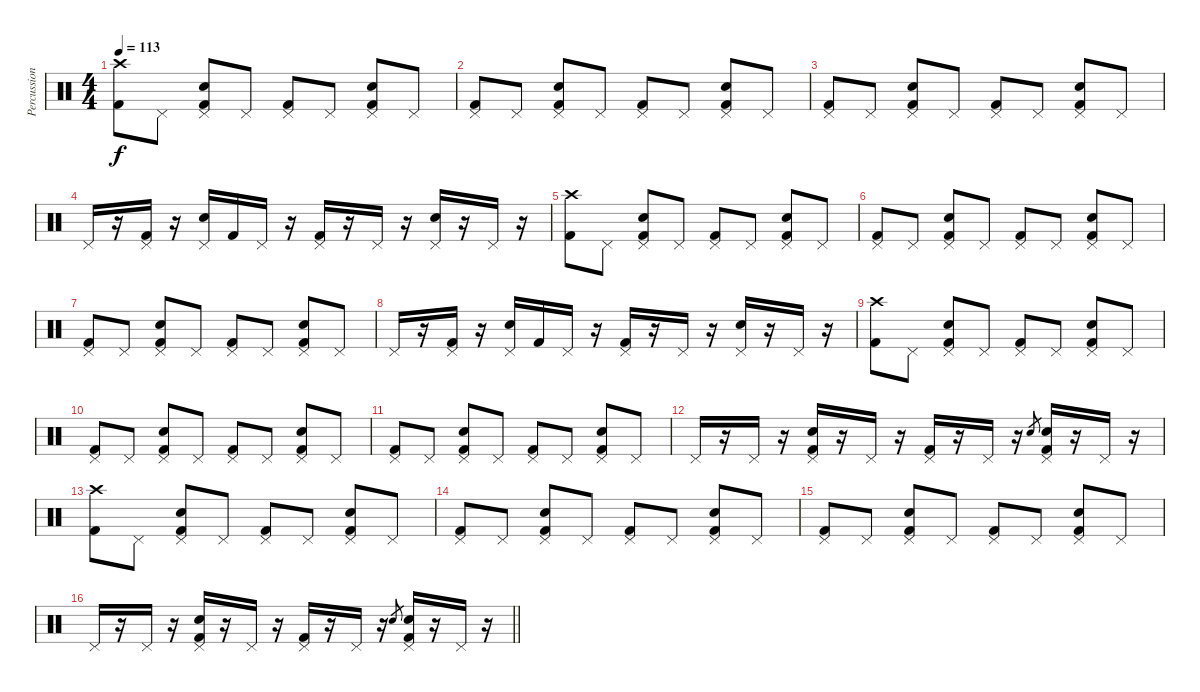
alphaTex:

\track ("Percussions" "Percussion") {instrument percussion}
\staff {score}
\articulation defaults
\ts (4 4)
\tempo 113
\clef neutral
\ks c
("Crash high (hit)" "Kick (hit) 2").8{dy f} "Pedal Hi-Hat (hit)".8 ("Pedal Hi-Hat (hit)" "Electric Snare (hit)" "Kick (hit) 2").8 "Pedal Hi-Hat (hit)".8 ("Pedal Hi-Hat (hit)" "Kick (hit) 2").8 "Pedal Hi-Hat (hit)".8 ("Pedal Hi-Hat (hit)" "Electric Snare (hit)" "Kick (hit) 2").8 "Pedal Hi-Hat (hit)".8 |
("Pedal Hi-Hat (hit)" "Kick (hit) 2").8 "Pedal Hi-Hat (hit)".8 ("Pedal Hi-Hat (hit)" "Electric Snare (hit)" "Kick (hit) 2").8 "Pedal Hi-Hat (hit)".8 ("Pedal Hi-Hat (hit)" "Kick (hit) 2").8 "Pedal Hi-Hat (hit)".8 ("Pedal Hi-Hat (hit)" "Electric Snare (hit)" "Kick (hit) 2").8 "Pedal Hi-Hat (hit)".8 |
("Pedal Hi-Hat (hit)" "Kick (hit) 2").8 "Pedal Hi-Hat (hit)".8 ("Pedal Hi-Hat (hit)" "Electric Snare (hit)" "Kick (hit) 2").8 "Pedal Hi-Hat (hit)".8 ("Pedal Hi-Hat (hit)" "Kick (hit) 2").8 "Pedal Hi-Hat (hit)".8 ("Pedal Hi-Hat (hit)" "Electric Snare (hit)" "Kick (hit) 2").8 "Pedal Hi-Hat (hit)".8 |
"Pedal Hi-Hat (hit)".16 r.16 ("Pedal Hi-Hat (hit)" "Kick (hit) 2").16 r.16 ("Pedal Hi-Hat (hit)" "Electric Snare (hit)").16 "Kick (hit) 2".16 "Pedal Hi-Hat (hit)".16 r.16 ("Pedal Hi-Hat (hit)" "Kick (hit) 2").16 r.16 "Pedal Hi-Hat (hit)".16 r.16 ("Pedal Hi-Hat (hit)" "Electric Snare (hit)").16 r.16 "Pedal Hi-Hat (hit)".16 r.16 |
("Crash high (hit)" "Kick (hit) 2").8 "Pedal Hi-Hat (hit)".8 ("Pedal Hi-Hat (hit)" "Electric Snare (hit)" "Kick (hit) 2").8 "Pedal Hi-Hat (hit)".8 ("Pedal Hi-Hat (hit)" "Kick (hit) 2").8 "Pedal Hi-Hat (hit)".8 ("Pedal Hi-Hat (hit)" "Electric Snare (hit)" "Kick (hit) 2").8 "Pedal Hi-Hat (hit)".8 |
("Pedal Hi-Hat (hit)" "Kick (hit) 2").8 "Pedal Hi-Hat (hit)".8 ("Pedal Hi-Hat (hit)" "Electric Snare (hit)" "Kick (hit) 2").8 "Pedal Hi-Hat (hit)".8 ("Pedal Hi-Hat (hit)" "Kick (hit) 2").8 "Pedal Hi-Hat (hit)".8 ("Pedal Hi-Hat (hit)" "Electric Snare (hit)" "Kick (hit) 2").8 "Pedal Hi-Hat (hit)".8 |
("Pedal Hi-Hat (hit)" "Kick (hit) 2").8 "Pedal Hi-Hat (hit)".8 ("Pedal Hi-Hat (hit)" "Electric Snare (hit)" "Kick (hit) 2").8 "Pedal Hi-Hat (hit)".8 ("Pedal Hi-Hat (hit)" "Kick (hit) 2").8 "Pedal Hi-Hat (hit)".8 ("Pedal Hi-Hat (hit)" "Electric Snare (hit)" "Kick (hit) 2").8 "Pedal Hi-Hat (hit)".8 |
"Pedal Hi-Hat (hit)".16 r.16 ("Pedal Hi-Hat (hit)" "Kick (hit) 2").16 r.16 ("Pedal Hi-Hat (hit)" "Electric Snare (hit)").16 "Kick (hit) 2".16 "Pedal Hi-Hat (hit)".16 r.16 ("Pedal Hi-Hat (hit)" "Kick (hit) 2").16 r.16 "Pedal Hi-Hat (hit)".16 r.16 ("Pedal Hi-Hat (hit)" "Electric Snare (hit)").16 r.16 "Pedal Hi-Hat (hit)".16 r.16 |
("Crash high (hit)" "Kick (hit) 2").8 "Pedal Hi-Hat (hit)".8 ("Pedal Hi-Hat (hit)" "Electric Snare (hit)" "Kick (hit) 2").8 "Pedal Hi-Hat (hit)".8 ("Pedal Hi-Hat (hit)" "Kick (hit) 2").8 "Pedal Hi-Hat (hit)".8 ("Pedal Hi-Hat (hit)" "Electric Snare (hit)" "Kick (hit) 2").8 "Pedal Hi-Hat (hit)".8 |
("Pedal Hi-Hat (hit)" "Kick (hit) 2").8 "Pedal Hi-Hat (hit)".8 ("Pedal Hi-Hat (hit)" "Electric Snare (hit)" "Kick (hit) 2").8 "Pedal Hi-Hat (hit)".8 ("Pedal Hi-Hat (hit)" "Kick (hit) 2").8 "Pedal Hi-Hat (hit)".8 ("Pedal Hi-Hat (hit)" "Electric Snare (hit)" "Kick (hit) 2").8 "Pedal Hi-Hat (hit)".8 |
("Pedal Hi-Hat (hit)" "Kick (hit) 2").8 "Pedal Hi-Hat (hit)".8 ("Pedal Hi-Hat (hit)" "Electric Snare (hit)" "Kick (hit) 2").8 "Pedal Hi-Hat (hit)".8 ("Pedal Hi-Hat (hit)" "Kick (hit) 2").8 "Pedal Hi-Hat (hit)".8 ("Pedal Hi-Hat (hit)" "Electric Snare (hit)" "Kick (hit) 2").8 "Pedal Hi-Hat (hit)".8 |
"Pedal Hi-Hat (hit)".16 r.16 "Pedal Hi-Hat (hit)".16 r.16 ("Pedal Hi-Hat (hit)" "Electric Snare (hit)" "Kick (hit) 2").16 r.16 "Pedal Hi-Hat (hit)".16 r.16 ("Pedal Hi-Hat (hit)" "Kick (hit) 2").16 r.16 "Pedal Hi-Hat (hit)".16 r.16 "Electric Snare (hit)".8{gr} ("Pedal Hi-Hat (hit)" "Electric Snare (hit)" "Kick (hit) 2").16 r.16 "Pedal Hi-Hat (hit)".16 r.16 |
("Crash high (hit)" "Kick (hit) 2").8 "Pedal Hi-Hat (hit)".8 ("Pedal Hi-Hat (hit)" "Electric Snare (hit)" "Kick (hit) 2").8 "Pedal Hi-Hat (hit)".8 ("Pedal Hi-Hat (hit)" "Kick (hit) 2").8 "Pedal Hi-Hat (hit)".8 ("Pedal Hi-Hat (hit)" "Electric Snare (hit)" "Kick (hit) 2").8 "Pedal Hi-Hat (hit)".8 |
("Pedal Hi-Hat (hit)" "Kick (hit) 2").8 "Pedal Hi-Hat (hit)".8 ("Pedal Hi-Hat (hit)" "Electric Snare (hit)" "Kick (hit) 2").8 "Pedal Hi-Hat (hit)".8 ("Pedal Hi-Hat (hit)" "Kick (hit) 2").8 "Pedal Hi-Hat (hit)".8 ("Pedal Hi-Hat (hit)" "Electric Snare (hit)" "Kick (hit) 2").8 "Pedal Hi-Hat (hit)".8 |
("Pedal Hi-Hat (hit)" "Kick (hit) 2").8 "Pedal Hi-Hat (hit)".8 ("Pedal Hi-Hat (hit)" "Electric Snare (hit)" "Kick (hit) 2").8 "Pedal Hi-Hat (hit)".8 ("Pedal Hi-Hat (hit)" "Kick (hit) 2").8 "Pedal Hi-Hat (hit)".8 ("Pedal Hi-Hat (hit)" "Electric Snare (hit)" "Kick (hit) 2").8 "Pedal Hi-Hat (hit)".8 |
\barLineRight lightlight "Pedal Hi-Hat (hit)".16
r.16 "Pedal Hi-Hat (hit)".16 r.16 ("Pedal Hi-Hat (hit)" "Electric Snare (hit)" "Kick (hit) 2").16 r.16 "Pedal Hi-Hat (hit)".16 r.16 ("Pedal Hi-Hat (hit)" "Kick (hit) 2").16 r.16 "Pedal Hi-Hat (hit)".16 r.16 "Electric Snare (hit)".8{gr} ("Pedal Hi-Hat (hit)" "Electric Snare (hit)" "Kick (hit) 2").16 r.16 "Pedal Hi-Hat (hit)".16 r.16
